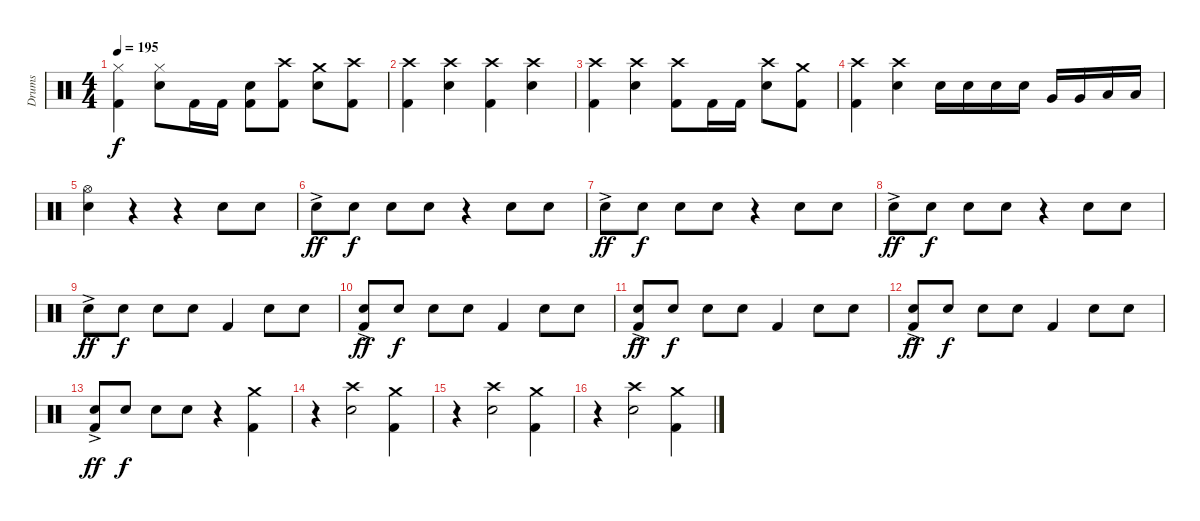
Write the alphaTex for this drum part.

\track ("Drums" "Drums") {instrument percussion}
\staff {score}
\articulation defaults
\ts (4 4)
\tempo 195
\clef neutral
\ks c
("Hi-Hat (closed)" "Kick (hit) 2").4{dy f} ("Hi-Hat (closed)" "Electric Snare (hit)").8 "Kick (hit) 2".16 "Kick (hit) 2".16 ("Electric Snare (hit)" "Kick (hit) 2").8 ("Crash high (hit)" "Kick (hit) 2").8 ("Crash medium (hit)" "Electric Snare (hit)").8 ("Crash high (hit)" "Kick (hit) 2").8 |
("Crash high (hit)" "Kick (hit) 2").4 ("Crash high (hit)" "Electric Snare (hit)").4 ("Crash high (hit)" "Kick (hit) 2").4 ("Crash high (hit)" "Electric Snare (hit)").4 |
("Crash high (hit)" "Kick (hit) 2").4 ("Crash high (hit)" "Electric Snare (hit)").4 ("Crash high (hit)" "Kick (hit) 2").8 "Kick (hit) 2".16 "Kick (hit) 2".16 ("Crash high (hit)" "Electric Snare (hit)").8 ("Crash medium (hit)" "Kick (hit) 2").8 |
("Crash high (hit)" "Kick (hit) 2").4 ("Crash high (hit)" "Electric Snare (hit)").4 "Electric Snare (hit)".16 "Electric Snare (hit)".16 "Electric Snare (hit)".16 "Electric Snare (hit)".16 "Very Low Tom (hit)".16 "Very Low Tom (hit)".16 "Low Floor Tom (hit)".16 "Low Floor Tom (hit)".16 |
("Hi-Hat (open)" "Electric Snare (hit)").4 r.4{volume 0} r.4 "Electric Snare (hit)".8{volume 16} "Electric Snare (hit)".8 |
"Electric Snare (hit)"{ac}.8{dy ff} "Electric Snare (hit)".8{dy f} "Electric Snare (hit)".8 "Electric Snare (hit)".8 r.4 "Electric Snare (hit)".8 "Electric Snare (hit)".8 |
"Electric Snare (hit)"{ac}.8{dy ff} "Electric Snare (hit)".8{dy f} "Electric Snare (hit)".8 "Electric Snare (hit)".8 r.4 "Electric Snare (hit)".8 "Electric Snare (hit)".8 |
"Electric Snare (hit)"{ac}.8{dy ff} "Electric Snare (hit)".8{dy f} "Electric Snare (hit)".8 "Electric Snare (hit)".8 r.4 "Electric Snare (hit)".8 "Electric Snare (hit)".8 |
"Electric Snare (hit)"{ac}.8{dy ff} "Electric Snare (hit)".8{dy f} "Electric Snare (hit)".8 "Electric Snare (hit)".8 "Kick (hit) 2".4 "Electric Snare (hit)".8 "Electric Snare (hit)".8 |
("Electric Snare (hit)"{ac} "Kick (hit) 2").8{dy ff} "Electric Snare (hit)".8{dy f} "Electric Snare (hit)".8 "Electric Snare (hit)".8 "Kick (hit) 2".4 "Electric Snare (hit)".8 "Electric Snare (hit)".8 |
("Electric Snare (hit)"{ac} "Kick (hit) 2").8{dy ff} "Electric Snare (hit)".8{dy f} "Electric Snare (hit)".8 "Electric Snare (hit)".8 "Kick (hit) 2".4 "Electric Snare (hit)".8 "Electric Snare (hit)".8 |
("Electric Snare (hit)"{ac} "Kick (hit) 2").8{dy ff} "Electric Snare (hit)".8{dy f} "Electric Snare (hit)".8 "Electric Snare (hit)".8 "Kick (hit) 2".4 "Electric Snare (hit)".8 "Electric Snare (hit)".8 |
("Electric Snare (hit)"{ac} "Kick (hit) 2").8{dy ff} "Electric Snare (hit)".8{dy f} "Electric Snare (hit)".8 "Electric Snare (hit)".8 r.4 ("Crash medium (hit)" "Kick (hit) 2").4 |
r.4 ("Crash high (hit)" "Electric Snare (hit)").2 ("Crash medium (hit)" "Kick (hit) 2").4 |
r.4 ("Crash high (hit)" "Electric Snare (hit)").2 ("Crash medium (hit)" "Kick (hit) 2").4 |
r.4 ("Crash high (hit)" "Electric Snare (hit)").2 ("Crash medium (hit)" "Kick (hit) 2").4
